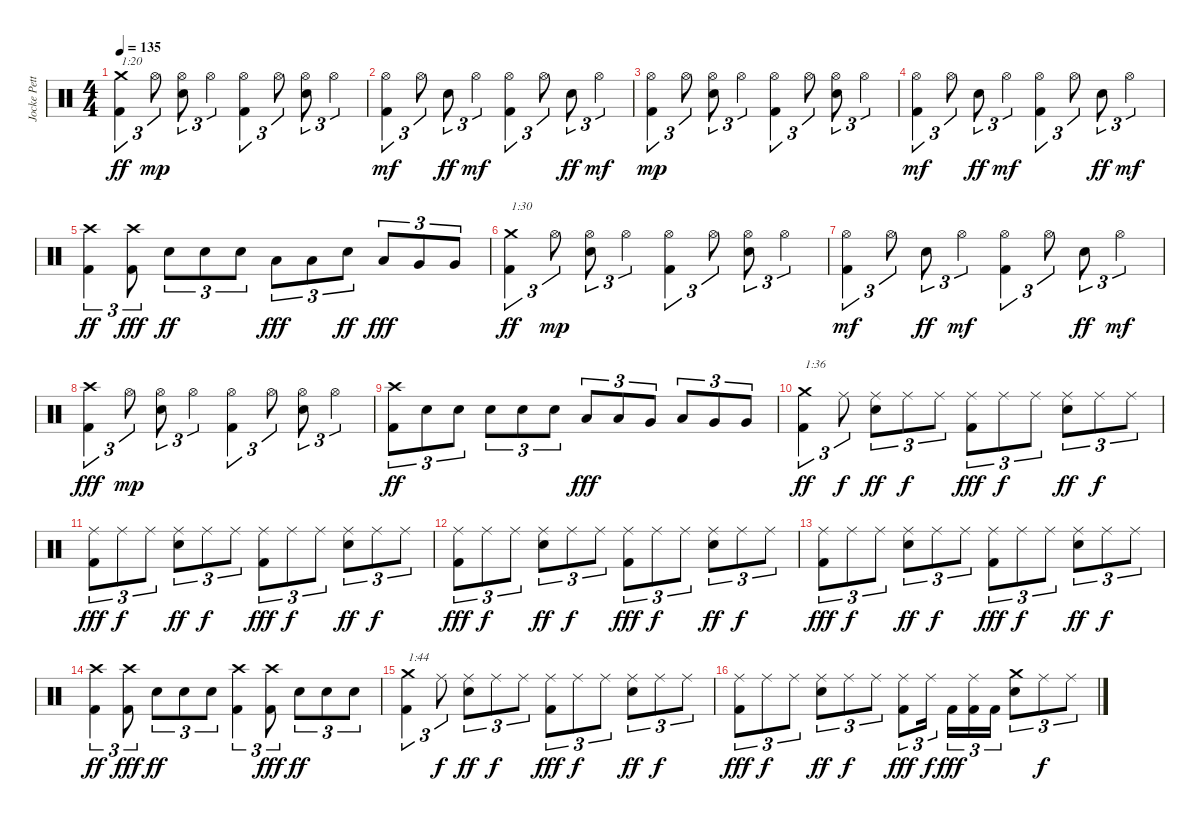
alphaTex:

\track ("Jocke Pettersson" "Jocke Pett") {instrument percussion}
\staff {score}
\articulation defaults
\ts (4 4)
\tempo 135
\clef neutral
\ks c
("Kick (hit) 2" "Crash medium (hit)").4{tu (3 2) txt "1:20" dy ff} "Hi-Hat (open)".8{tu (3 2) dy mp} ("Electric Snare (hit)" "Hi-Hat (open)").8{tu (3 2)} "Hi-Hat (open)".4{tu (3 2)} ("Kick (hit) 2" "Hi-Hat (open)").4{tu (3 2)} "Hi-Hat (open)".8{tu (3 2)} ("Electric Snare (hit)" "Hi-Hat (open)").8{tu (3 2)} "Hi-Hat (open)".4{tu (3 2)} |
("Kick (hit) 2" "Hi-Hat (open)").4{tu (3 2) dy mf} "Hi-Hat (open)".8{tu (3 2)} "Electric Snare (hit)".8{tu (3 2) dy ff} "Hi-Hat (open)".4{tu (3 2) dy mf} ("Kick (hit) 2" "Hi-Hat (open)").4{tu (3 2)} "Hi-Hat (open)".8{tu (3 2)} "Electric Snare (hit)".8{tu (3 2) dy ff} "Hi-Hat (open)".4{tu (3 2) dy mf} |
("Kick (hit) 2" "Hi-Hat (open)").4{tu (3 2) dy mp} "Hi-Hat (open)".8{tu (3 2)} ("Electric Snare (hit)" "Hi-Hat (open)").8{tu (3 2)} "Hi-Hat (open)".4{tu (3 2)} ("Kick (hit) 2" "Hi-Hat (open)").4{tu (3 2)} "Hi-Hat (open)".8{tu (3 2)} ("Electric Snare (hit)" "Hi-Hat (open)").8{tu (3 2)} "Hi-Hat (open)".4{tu (3 2)} |
("Kick (hit) 2" "Hi-Hat (open)").4{tu (3 2) dy mf} "Hi-Hat (open)".8{tu (3 2)} "Electric Snare (hit)".8{tu (3 2) dy ff} "Hi-Hat (open)".4{tu (3 2) dy mf} ("Kick (hit) 2" "Hi-Hat (open)").4{tu (3 2)} "Hi-Hat (open)".8{tu (3 2)} "Electric Snare (hit)".8{tu (3 2) dy ff} "Hi-Hat (open)".4{tu (3 2) dy mf} |
("Kick (hit) 2" "Crash high (hit)").4{tu (3 2) dy ff} ("Kick (hit) 2" "Crash high (hit)").8{tu (3 2) dy fff} "Electric Snare (hit)".8{tu (3 2) dy ff} "Electric Snare (hit)".8{tu (3 2)} "Electric Snare (hit)".8{tu (3 2)} "Low Tom (hit)".8{tu (3 2) dy fff} "Low Tom (hit)".8{tu (3 2)} "Electric Snare (hit)".8{tu (3 2) dy ff} "Low Tom (hit)".8{tu (3 2) dy fff} "Very Low Tom (hit)".8{tu (3 2)} "Very Low Tom (hit)".8{tu (3 2)} |
("Kick (hit) 2" "Crash medium (hit)").4{tu (3 2) txt "1:30" dy ff} "Hi-Hat (open)".8{tu (3 2) dy mp} ("Electric Snare (hit)" "Hi-Hat (open)").8{tu (3 2)} "Hi-Hat (open)".4{tu (3 2)} ("Kick (hit) 2" "Hi-Hat (open)").4{tu (3 2)} "Hi-Hat (open)".8{tu (3 2)} ("Electric Snare (hit)" "Hi-Hat (open)").8{tu (3 2)} "Hi-Hat (open)".4{tu (3 2)} |
("Kick (hit) 2" "Hi-Hat (open)").4{tu (3 2) dy mf} "Hi-Hat (open)".8{tu (3 2)} "Electric Snare (hit)".8{tu (3 2) dy ff} "Hi-Hat (open)".4{tu (3 2) dy mf} ("Kick (hit) 2" "Hi-Hat (open)").4{tu (3 2)} "Hi-Hat (open)".8{tu (3 2)} "Electric Snare (hit)".8{tu (3 2) dy ff} "Hi-Hat (open)".4{tu (3 2) dy mf} |
("Kick (hit) 2" "Crash high (hit)").4{tu (3 2) dy fff} "Hi-Hat (open)".8{tu (3 2) dy mp} ("Electric Snare (hit)" "Hi-Hat (open)").8{tu (3 2)} "Hi-Hat (open)".4{tu (3 2)} ("Kick (hit) 2" "Hi-Hat (open)").4{tu (3 2)} "Hi-Hat (open)".8{tu (3 2)} ("Electric Snare (hit)" "Hi-Hat (open)").8{tu (3 2)} "Hi-Hat (open)".4{tu (3 2)} |
("Kick (hit) 2" "Crash high (hit)").8{tu (3 2) dy ff} "Electric Snare (hit)".8{tu (3 2)} "Electric Snare (hit)".8{tu (3 2)} "Electric Snare (hit)".8{tu (3 2)} "Electric Snare (hit)".8{tu (3 2)} "Electric Snare (hit)".8{tu (3 2)} "Low Tom (hit)".8{tu (3 2) dy fff} "Low Tom (hit)".8{tu (3 2)} "Very Low Tom (hit)".8{tu (3 2)} "Low Tom (hit)".8{tu (3 2)} "Very Low Tom (hit)".8{tu (3 2)} "Very Low Tom (hit)".8{tu (3 2)} |
("Kick (hit) 2" "Crash medium (hit)").4{tu (3 2) txt "1:36" dy ff} "Ride (middle)".8{tu (3 2) dy f} ("Electric Snare (hit)" "Ride (middle)").8{tu (3 2) dy ff} "Ride (middle)".8{tu (3 2) dy f} "Ride (middle)".8{tu (3 2)} ("Kick (hit) 2" "Ride (middle)").8{tu (3 2) dy fff} "Ride (middle)".8{tu (3 2) dy f} "Ride (middle)".8{tu (3 2)} ("Electric Snare (hit)" "Ride (middle)").8{tu (3 2) dy ff} "Ride (middle)".8{tu (3 2) dy f} "Ride (middle)".8{tu (3 2)} |
("Kick (hit) 2" "Ride (middle)").8{tu (3 2) dy fff} "Ride (middle)".8{tu (3 2) dy f} "Ride (middle)".8{tu (3 2)} ("Electric Snare (hit)" "Ride (middle)").8{tu (3 2) dy ff} "Ride (middle)".8{tu (3 2) dy f} "Ride (middle)".8{tu (3 2)} ("Kick (hit) 2" "Ride (middle)").8{tu (3 2) dy fff} "Ride (middle)".8{tu (3 2) dy f} "Ride (middle)".8{tu (3 2)} ("Electric Snare (hit)" "Ride (middle)").8{tu (3 2) dy ff} "Ride (middle)".8{tu (3 2) dy f} "Ride (middle)".8{tu (3 2)} |
("Kick (hit) 2" "Ride (middle)").8{tu (3 2) dy fff} "Ride (middle)".8{tu (3 2) dy f} "Ride (middle)".8{tu (3 2)} ("Electric Snare (hit)" "Ride (middle)").8{tu (3 2) dy ff} "Ride (middle)".8{tu (3 2) dy f} "Ride (middle)".8{tu (3 2)} ("Kick (hit) 2" "Ride (middle)").8{tu (3 2) dy fff} "Ride (middle)".8{tu (3 2) dy f} "Ride (middle)".8{tu (3 2)} ("Electric Snare (hit)" "Ride (middle)").8{tu (3 2) dy ff} "Ride (middle)".8{tu (3 2) dy f} "Ride (middle)".8{tu (3 2)} |
("Kick (hit) 2" "Ride (middle)").8{tu (3 2) dy fff} "Ride (middle)".8{tu (3 2) dy f} "Ride (middle)".8{tu (3 2)} ("Electric Snare (hit)" "Ride (middle)").8{tu (3 2) dy ff} "Ride (middle)".8{tu (3 2) dy f} "Ride (middle)".8{tu (3 2)} ("Kick (hit) 2" "Ride (middle)").8{tu (3 2) dy fff} "Ride (middle)".8{tu (3 2) dy f} "Ride (middle)".8{tu (3 2)} ("Electric Snare (hit)" "Ride (middle)").8{tu (3 2) dy ff} "Ride (middle)".8{tu (3 2) dy f} "Ride (middle)".8{tu (3 2)} |
("Kick (hit) 2" "Crash high (hit)").4{tu (3 2) dy ff} ("Kick (hit) 2" "Crash high (hit)").8{tu (3 2) dy fff} "Electric Snare (hit)".8{tu (3 2) dy ff} "Electric Snare (hit)".8{tu (3 2)} "Electric Snare (hit)".8{tu (3 2)} ("Kick (hit) 2" "Crash high (hit)").4{tu (3 2)} ("Kick (hit) 2" "Crash high (hit)").8{tu (3 2) dy fff} "Electric Snare (hit)".8{tu (3 2) dy ff} "Electric Snare (hit)".8{tu (3 2)} "Electric Snare (hit)".8{tu (3 2)} |
("Kick (hit) 2" "Crash medium (hit)").4{tu (3 2) txt "1:44"} "Ride (middle)".8{tu (3 2) dy f} ("Electric Snare (hit)" "Ride (middle)").8{tu (3 2) dy ff} "Ride (middle)".8{tu (3 2) dy f} "Ride (middle)".8{tu (3 2)} ("Kick (hit) 2" "Ride (middle)").8{tu (3 2) dy fff} "Ride (middle)".8{tu (3 2) dy f} "Ride (middle)".8{tu (3 2)} ("Electric Snare (hit)" "Ride (middle)").8{tu (3 2) dy ff} "Ride (middle)".8{tu (3 2) dy f} "Ride (middle)".8{tu (3 2)} |
("Kick (hit) 2" "Ride (middle)").8{tu (3 2) dy fff} "Ride (middle)".8{tu (3 2) dy f} "Ride (middle)".8{tu (3 2)} ("Electric Snare (hit)" "Ride (middle)").8{tu (3 2) dy ff} "Ride (middle)".8{tu (3 2) dy f} "Ride (middle)".8{tu (3 2)} ("Kick (hit) 2" "Ride (middle)").8{tu (3 2) dy fff} "Ride (middle)".16{tu (3 2) dy f beam splitsecondary} "Kick (hit) 2".16{tu (3 2) dy fff} ("Kick (hit) 2" "Ride (middle)").16{tu (3 2)} "Kick (hit) 2".16{tu (3 2)} ("Electric Snare (hit)" "Crash medium (hit)").8{tu (3 2)} "Ride (middle)".8{tu (3 2) dy f} "Ride (middle)".8{tu (3 2)}
